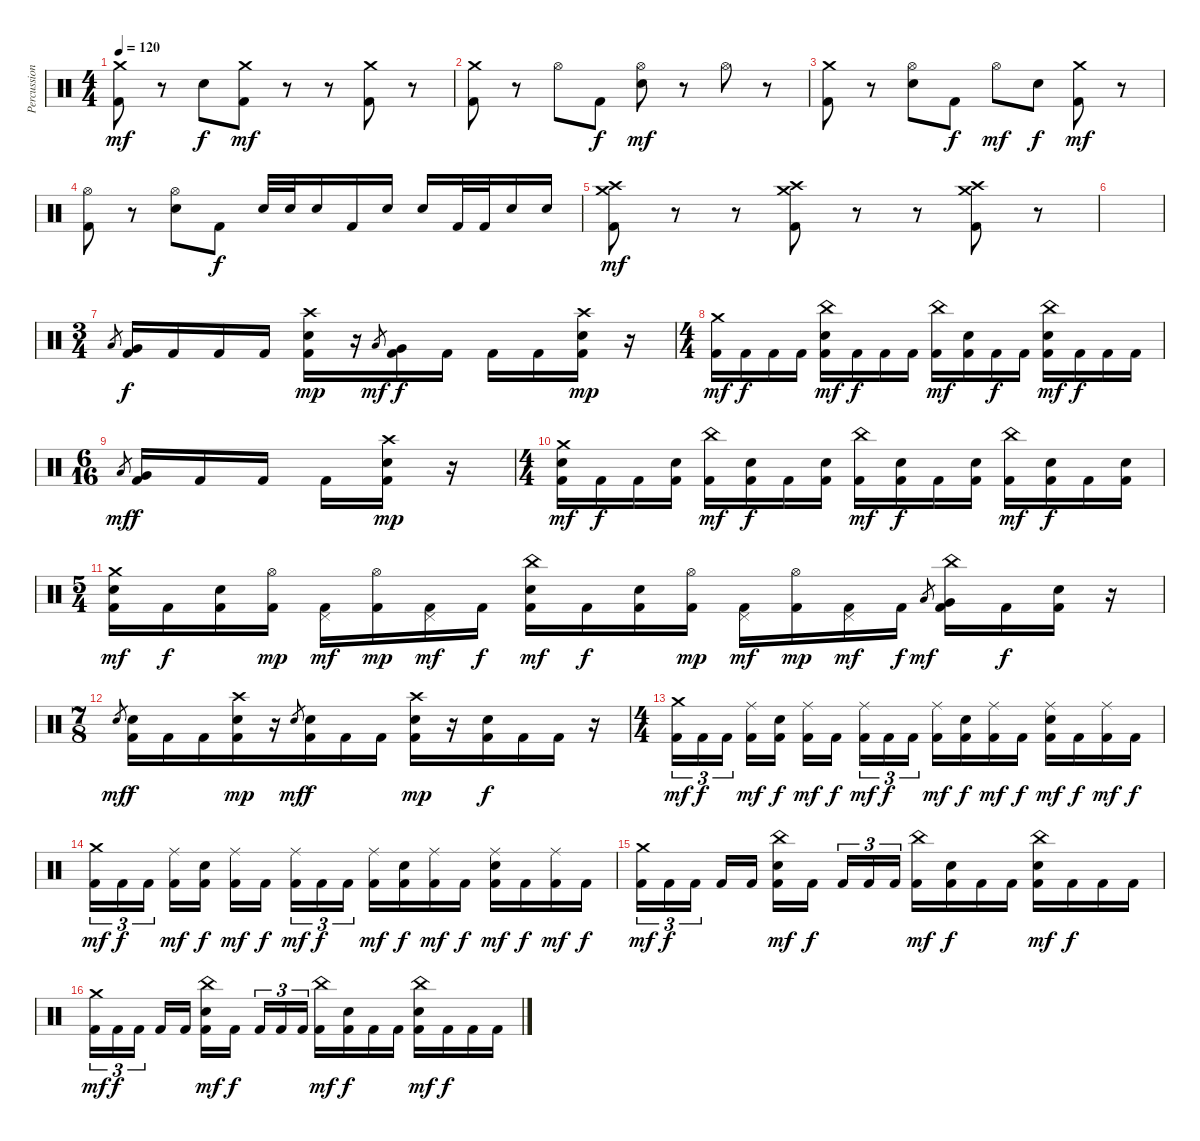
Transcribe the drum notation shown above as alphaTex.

\track ("Percussion" "Percussion") {instrument percussion}
\staff {score}
\articulation defaults
\ts (4 4)
\tempo 120
\clef neutral
\ks c
("Crash medium (hit)" "Kick (hit) 2").8{dy mf} r.8 "Electric Snare (hit)".8{dy f} ("Crash medium (hit)" "Kick (hit) 2").8{dy mf} r.8 r.8 ("Crash medium (hit)" "Kick (hit) 2").8 r.8 |
("Crash medium (hit)" "Kick (hit) 2").8 r.8 "Hi-Hat (open)".8 "Kick (hit) 2".8{dy f} ("Hi-Hat (open)" "Electric Snare (hit)").8{dy mf} r.8 "Hi-Hat (open)".8 r.8 |
("Crash medium (hit)" "Kick (hit) 2").8 r.8 ("Hi-Hat (open)" "Electric Snare (hit)").8 "Kick (hit) 2".8{dy f} "Hi-Hat (open)".8{dy mf} "Electric Snare (hit)".8{dy f} ("Crash medium (hit)" "Kick (hit) 2").8{dy mf} r.8 |
("Hi-Hat (open)" "Kick (hit) 2").8 r.8 ("Hi-Hat (open)" "Electric Snare (hit)").8 "Kick (hit) 2".8{dy f} "Electric Snare (hit)".32 "Electric Snare (hit)".32 "Electric Snare (hit)".16 "Kick (hit) 2".16 "Electric Snare (hit)".16 "Electric Snare (hit)".16 "Kick (hit) 2".32 "Kick (hit) 2".32 "Electric Snare (hit)".16 "Electric Snare (hit)".16 |
("Crash high (hit)" "Crash medium (hit)" "Kick (hit) 2").8{dy mf} r.8 r.8 ("Crash high (hit)" "Crash medium (hit)" "Kick (hit) 2").8 r.8 r.8 ("Crash high (hit)" "Crash medium (hit)" "Kick (hit) 2").8 r.8 |
|
\ts (3 4)
"Low Floor Tom (hit)".8{gr} ("Very Low Tom (hit)" "Kick (hit) 2").16{dy f} "Kick (hit) 2".16 "Kick (hit) 2".16 "Kick (hit) 2".16 ("Crash high (hit)" "Electric Snare (hit)" "Kick (hit) 2").16{dy mp} r.16 "Low Floor Tom (hit)".8{gr dy mf} ("Very Low Tom (hit)" "Kick (hit) 2").16{dy f} "Kick (hit) 2".16 "Kick (hit) 2".16 "Kick (hit) 2".16 ("Crash high (hit)" "Electric Snare (hit)" "Kick (hit) 2").16{dy mp} r.16 |
\ts (4 4)
("Crash medium (hit)" "Kick (hit) 2").16{dy mf} "Kick (hit) 2".16{dy f} "Kick (hit) 2".16 "Kick (hit) 2".16 ("China (hit)" "Electric Snare (hit)" "Kick (hit) 2").16{dy mf} "Kick (hit) 2".16{dy f} "Kick (hit) 2".16 "Kick (hit) 2".16 ("China (hit)" "Kick (hit) 2").16{dy mf} ("Electric Snare (hit)" "Kick (hit) 2").16 "Kick (hit) 2".16{dy f} "Kick (hit) 2".16 ("China (hit)" "Electric Snare (hit)" "Kick (hit) 2").16{dy mf} "Kick (hit) 2".16{dy f} "Kick (hit) 2".16 "Kick (hit) 2".16 |
\ts (6 16)
"Low Floor Tom (hit)".8{gr dy mf} ("Very Low Tom (hit)" "Kick (hit) 2").16{dy f} "Kick (hit) 2".16 "Kick (hit) 2".16 "Kick (hit) 2".16 ("Crash high (hit)" "Electric Snare (hit)" "Kick (hit) 2").16{dy mp} r.16 |
\ts (4 4)
("Crash medium (hit)" "Electric Snare (hit)" "Kick (hit) 2").16{dy mf} "Kick (hit) 2".16{dy f} "Kick (hit) 2".16 ("Electric Snare (hit)" "Kick (hit) 2").16 ("China (hit)" "Kick (hit) 2").16{dy mf} ("Electric Snare (hit)" "Kick (hit) 2").16{dy f} "Kick (hit) 2".16 ("Electric Snare (hit)" "Kick (hit) 2").16 ("China (hit)" "Kick (hit) 2").16{dy mf} ("Electric Snare (hit)" "Kick (hit) 2").16{dy f} "Kick (hit) 2".16 ("Electric Snare (hit)" "Kick (hit) 2").16 ("China (hit)" "Kick (hit) 2").16{dy mf} ("Electric Snare (hit)" "Kick (hit) 2").16{dy f} "Kick (hit) 2".16 ("Electric Snare (hit)" "Kick (hit) 2").16 |
\ts (5 4)
("Crash medium (hit)" "Electric Snare (hit)" "Kick (hit) 2").16{dy mf} "Kick (hit) 2".16{dy f} ("Electric Snare (hit)" "Kick (hit) 2").16 ("Hi-Hat (open)" "Kick (hit) 2").16{dy mp} ("Kick (hit) 2" "Pedal Hi-Hat (hit)").16{dy mf} ("Hi-Hat (open)" "Kick (hit) 2").16{dy mp} ("Kick (hit) 2" "Pedal Hi-Hat (hit)").16{dy mf} "Kick (hit) 2".16{dy f} ("China (hit)" "Electric Snare (hit)" "Kick (hit) 2").16{dy mf} "Kick (hit) 2".16{dy f} ("Electric Snare (hit)" "Kick (hit) 2").16 ("Hi-Hat (open)" "Kick (hit) 2").16{dy mp} ("Kick (hit) 2" "Pedal Hi-Hat (hit)").16{dy mf} ("Hi-Hat (open)" "Kick (hit) 2").16{dy mp} ("Kick (hit) 2" "Pedal Hi-Hat (hit)").16{dy mf} "Kick (hit) 2".16{dy f} "Low Floor Tom (hit)".8{gr dy mf} ("China (hit)" "Very Low Tom (hit)" "Kick (hit) 2").16 "Kick (hit) 2".16{dy f} ("Electric Snare (hit)" "Kick (hit) 2").16 r.16 |
\ts (7 8)
"Electric Snare (hit)".8{gr dy mf} ("Electric Snare (hit)" "Kick (hit) 2").16{dy f} "Kick (hit) 2".16 "Kick (hit) 2".16 ("Crash high (hit)" "Electric Snare (hit)" "Kick (hit) 2").16{dy mp} r.16 "Electric Snare (hit)".8{gr dy mf} ("Electric Snare (hit)" "Kick (hit) 2").16{dy f} "Kick (hit) 2".16 "Kick (hit) 2".16 ("Crash high (hit)" "Electric Snare (hit)" "Kick (hit) 2").16{dy mp} r.16 ("Electric Snare (hit)" "Kick (hit) 2").16{dy f} "Kick (hit) 2".16 "Kick (hit) 2".16 r.16 |
\ts (4 4)
("Crash medium (hit)" "Kick (hit) 2").16{tu (3 2) dy mf} "Kick (hit) 2".16{tu (3 2) dy f} "Kick (hit) 2".16{tu (3 2) beam splitsecondary} ("Ride (middle)" "Kick (hit) 2").16{dy mf} ("Electric Snare (hit)" "Kick (hit) 2").16{dy f} ("Ride (middle)" "Kick (hit) 2").16{dy mf} "Kick (hit) 2".16{dy f beam splitsecondary} ("Ride (middle)" "Kick (hit) 2").16{tu (3 2) dy mf} "Kick (hit) 2".16{tu (3 2) dy f} "Kick (hit) 2".16{tu (3 2)} ("Ride (middle)" "Kick (hit) 2").16{dy mf} ("Electric Snare (hit)" "Kick (hit) 2").16{dy f} ("Ride (middle)" "Kick (hit) 2").16{dy mf} "Kick (hit) 2".16{dy f} ("Ride (middle)" "Electric Snare (hit)" "Kick (hit) 2").16{dy mf} "Kick (hit) 2".16{dy f} ("Ride (middle)" "Kick (hit) 2").16{dy mf} "Kick (hit) 2".16{dy f} |
("Crash medium (hit)" "Kick (hit) 2").16{tu (3 2) dy mf} "Kick (hit) 2".16{tu (3 2) dy f} "Kick (hit) 2".16{tu (3 2) beam splitsecondary} ("Ride (middle)" "Kick (hit) 2").16{dy mf} ("Electric Snare (hit)" "Kick (hit) 2").16{dy f} ("Ride (middle)" "Kick (hit) 2").16{dy mf} "Kick (hit) 2".16{dy f beam splitsecondary} ("Ride (middle)" "Kick (hit) 2").16{tu (3 2) dy mf} "Kick (hit) 2".16{tu (3 2) dy f} "Kick (hit) 2".16{tu (3 2)} ("Ride (middle)" "Kick (hit) 2").16{dy mf} ("Electric Snare (hit)" "Kick (hit) 2").16{dy f} ("Ride (middle)" "Kick (hit) 2").16{dy mf} "Kick (hit) 2".16{dy f} ("Ride (middle)" "Electric Snare (hit)" "Kick (hit) 2").16{dy mf} "Kick (hit) 2".16{dy f} ("Ride (middle)" "Kick (hit) 2").16{dy mf} "Kick (hit) 2".16{dy f} |
("Crash medium (hit)" "Kick (hit) 2").16{tu (3 2) dy mf} "Kick (hit) 2".16{tu (3 2) dy f} "Kick (hit) 2".16{tu (3 2) beam splitsecondary} "Kick (hit) 2".16 "Kick (hit) 2".16 ("China (hit)" "Electric Snare (hit)" "Kick (hit) 2").16{dy mf} "Kick (hit) 2".16{dy f beam splitsecondary} "Kick (hit) 2".16{tu (3 2)} "Kick (hit) 2".16{tu (3 2)} "Kick (hit) 2".16{tu (3 2)} ("China (hit)" "Kick (hit) 2").16{dy mf} ("Electric Snare (hit)" "Kick (hit) 2").16{dy f} "Kick (hit) 2".16 "Kick (hit) 2".16 ("China (hit)" "Electric Snare (hit)" "Kick (hit) 2").16{dy mf} "Kick (hit) 2".16{dy f} "Kick (hit) 2".16 "Kick (hit) 2".16 |
("Crash medium (hit)" "Kick (hit) 2").16{tu (3 2) dy mf} "Kick (hit) 2".16{tu (3 2) dy f} "Kick (hit) 2".16{tu (3 2) beam splitsecondary} "Kick (hit) 2".16 "Kick (hit) 2".16 ("China (hit)" "Electric Snare (hit)" "Kick (hit) 2").16{dy mf} "Kick (hit) 2".16{dy f beam splitsecondary} "Kick (hit) 2".16{tu (3 2)} "Kick (hit) 2".16{tu (3 2)} "Kick (hit) 2".16{tu (3 2)} ("China (hit)" "Kick (hit) 2").16{dy mf} ("Electric Snare (hit)" "Kick (hit) 2").16{dy f} "Kick (hit) 2".16 "Kick (hit) 2".16 ("China (hit)" "Electric Snare (hit)" "Kick (hit) 2").16{dy mf} "Kick (hit) 2".16{dy f} "Kick (hit) 2".16 "Kick (hit) 2".16
